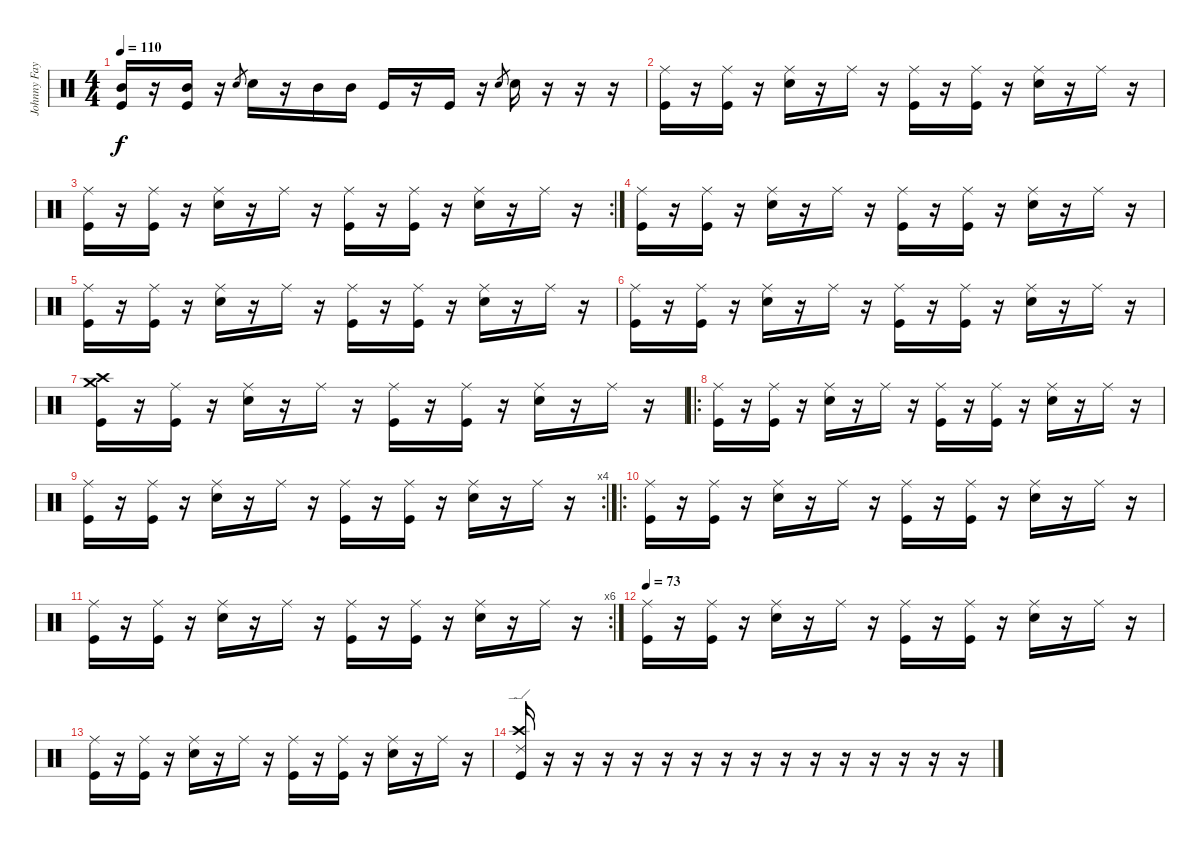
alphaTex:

\track ("Johnny Fay" "Johnny Fay") {instrument percussion}
\staff {score}
\articulation defaults
\ts (4 4)
\tempo 110
\clef neutral
\ks c
("Kick (hit)" "Mid Tom (hit)").16{dy f} r.16 ("Kick (hit)" "Mid Tom (hit)").16 r.16 "Snare (hit) 2".8{gr} "Snare (hit) 2".16 r.16 "Mid Tom (hit)".16 "Mid Tom (hit)".16 "Kick (hit)".16 r.16 "Kick (hit)".16 r.16 "Snare (hit) 2".8{gr} "Snare (hit) 2".16 r.16 r.16 r.16 |
("Kick (hit)" "Ride (middle)").16 r.16 ("Kick (hit)" "Ride (middle)").16 r.16 ("Snare (hit) 2" "Ride (middle)").16 r.16 "Ride (middle)".16 r.16 ("Kick (hit)" "Ride (middle)").16 r.16 ("Kick (hit)" "Ride (middle)").16 r.16 ("Snare (hit) 2" "Ride (middle)").16 r.16 "Ride (middle)".16 r.16 |
\rc 2
("Kick (hit)" "Ride (middle)").16 r.16 ("Kick (hit)" "Ride (middle)").16 r.16 ("Snare (hit) 2" "Ride (middle)").16 r.16 "Ride (middle)".16 r.16 ("Kick (hit)" "Ride (middle)").16 r.16 ("Kick (hit)" "Ride (middle)").16 r.16 ("Snare (hit) 2" "Ride (middle)").16 r.16 "Ride (middle)".16 r.16 |
("Kick (hit)" "Ride (middle)").16 r.16 ("Kick (hit)" "Ride (middle)").16 r.16 ("Snare (hit) 2" "Ride (middle)").16 r.16 "Ride (middle)".16 r.16 ("Kick (hit)" "Ride (middle)").16 r.16 ("Kick (hit)" "Ride (middle)").16 r.16 ("Snare (hit) 2" "Ride (middle)").16 r.16 "Ride (middle)".16 r.16 |
("Kick (hit)" "Ride (middle)").16 r.16 ("Kick (hit)" "Ride (middle)").16 r.16 ("Snare (hit) 2" "Ride (middle)").16 r.16 "Ride (middle)".16 r.16 ("Kick (hit)" "Ride (middle)").16 r.16 ("Kick (hit)" "Ride (middle)").16 r.16 ("Snare (hit) 2" "Ride (middle)").16 r.16 "Ride (middle)".16 r.16 |
("Kick (hit)" "Ride (middle)").16 r.16 ("Kick (hit)" "Ride (middle)").16 r.16 ("Snare (hit) 2" "Ride (middle)").16 r.16 "Ride (middle)".16 r.16 ("Kick (hit)" "Ride (middle)").16 r.16 ("Kick (hit)" "Ride (middle)").16 r.16 ("Snare (hit) 2" "Ride (middle)").16 r.16 "Ride (middle)".16 r.16 |
("Kick (hit)" "Crash medium (hit)" "Crash high (hit)").16 r.16 ("Kick (hit)" "Ride (middle)").16 r.16 ("Snare (hit) 2" "Ride (middle)").16 r.16 "Ride (middle)".16 r.16 ("Kick (hit)" "Ride (middle)").16 r.16 ("Kick (hit)" "Ride (middle)").16 r.16 ("Snare (hit) 2" "Ride (middle)").16 r.16 "Ride (middle)".16 r.16 |
\ro
("Kick (hit)" "Ride (middle)").16 r.16 ("Kick (hit)" "Ride (middle)").16 r.16 ("Snare (hit) 2" "Ride (middle)").16 r.16 "Ride (middle)".16 r.16 ("Kick (hit)" "Ride (middle)").16 r.16 ("Kick (hit)" "Ride (middle)").16 r.16 ("Snare (hit) 2" "Ride (middle)").16 r.16 "Ride (middle)".16 r.16 |
\rc 4
("Kick (hit)" "Ride (middle)").16 r.16 ("Kick (hit)" "Ride (middle)").16 r.16 ("Snare (hit) 2" "Ride (middle)").16 r.16 "Ride (middle)".16 r.16 ("Kick (hit)" "Ride (middle)").16 r.16 ("Kick (hit)" "Ride (middle)").16 r.16 ("Snare (hit) 2" "Ride (middle)").16 r.16 "Ride (middle)".16 r.16 |
\ro
("Kick (hit)" "Ride (middle)").16 r.16 ("Kick (hit)" "Ride (middle)").16 r.16 ("Snare (hit) 2" "Ride (middle)").16 r.16 "Ride (middle)".16 r.16 ("Kick (hit)" "Ride (middle)").16 r.16 ("Kick (hit)" "Ride (middle)").16 r.16 ("Snare (hit) 2" "Ride (middle)").16 r.16 "Ride (middle)".16 r.16 |
\rc 6
("Kick (hit)" "Ride (middle)").16 r.16 ("Kick (hit)" "Ride (middle)").16 r.16 ("Snare (hit) 2" "Ride (middle)").16 r.16 "Ride (middle)".16 r.16 ("Kick (hit)" "Ride (middle)").16 r.16 ("Kick (hit)" "Ride (middle)").16 r.16 ("Snare (hit) 2" "Ride (middle)").16 r.16 "Ride (middle)".16 r.16 |
\tempo 73
("Kick (hit)" "Ride (middle)").16 r.16 ("Kick (hit)" "Ride (middle)").16 r.16 ("Snare (hit) 2" "Ride (middle)").16 r.16 "Ride (middle)".16 r.16 ("Kick (hit)" "Ride (middle)").16 r.16 ("Kick (hit)" "Ride (middle)").16 r.16 ("Snare (hit) 2" "Ride (middle)").16 r.16 "Ride (middle)".16 r.16 |
("Kick (hit)" "Ride (middle)").16 r.16 ("Kick (hit)" "Ride (middle)").16 r.16 ("Snare (hit) 2" "Ride (middle)").16 r.16 "Ride (middle)".16 r.16 ("Kick (hit)" "Ride (middle)").16 r.16 ("Kick (hit)" "Ride (middle)").16 r.16 ("Snare (hit) 2" "Ride (middle)").16 r.16 "Ride (middle)".16 r.16 |
("Crash high (hit)" "Kick (hit)" "Ride (edge) 2").16 r.16 r.16 r.16 r.16 r.16 r.16 r.16 r.16 r.16 r.16 r.16 r.16 r.16 r.16 r.16
